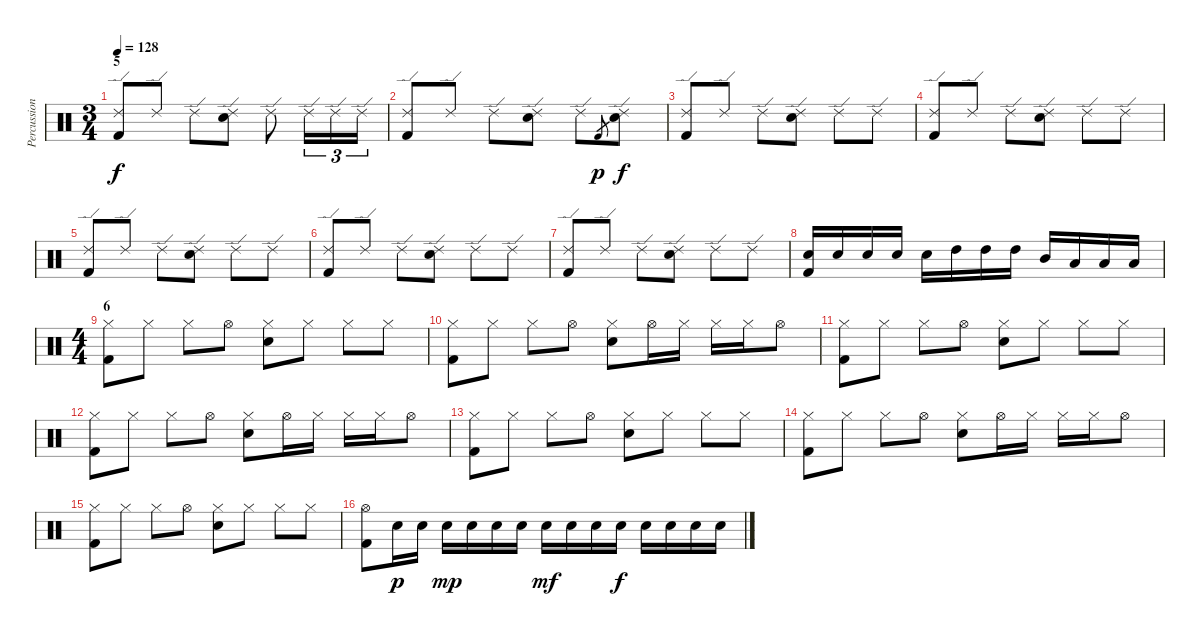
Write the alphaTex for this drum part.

\track ("Percussion" "Percussion") {instrument percussion}
\staff {score}
\articulation defaults
\ts (3 4)
\section ("" "5")
\tempo 128
\clef neutral
\ks c
("Ride (edge) 2" "Kick (hit) 2").8{dy f} "Ride (edge) 2".8 "Ride (edge) 2".8 ("Ride (edge) 2" "Electric Snare (hit)").8 "Ride (edge) 2".8 "Ride (edge) 2".16{tu (3 2)} "Ride (edge) 2".16{tu (3 2)} "Ride (edge) 2".16{tu (3 2)} |
("Ride (edge) 2" "Kick (hit) 2").8 "Ride (edge) 2".8 "Ride (edge) 2".8 ("Ride (edge) 2" "Electric Snare (hit)").8 "Ride (edge) 2".8 "Kick (hit) 2".8{gr dy p} ("Ride (edge) 2" "Electric Snare (hit)").8{dy f} |
("Ride (edge) 2" "Kick (hit) 2").8 "Ride (edge) 2".8 "Ride (edge) 2".8 ("Ride (edge) 2" "Electric Snare (hit)").8 "Ride (edge) 2".8 "Ride (edge) 2".8 |
("Ride (edge) 2" "Kick (hit) 2").8 "Ride (edge) 2".8 "Ride (edge) 2".8 ("Ride (edge) 2" "Electric Snare (hit)").8 "Ride (edge) 2".8 "Ride (edge) 2".8 |
("Ride (edge) 2" "Kick (hit) 2").8 "Ride (edge) 2".8 "Ride (edge) 2".8 ("Ride (edge) 2" "Electric Snare (hit)").8 "Ride (edge) 2".8 "Ride (edge) 2".8 |
("Ride (edge) 2" "Kick (hit) 2").8 "Ride (edge) 2".8 "Ride (edge) 2".8 ("Ride (edge) 2" "Electric Snare (hit)").8 "Ride (edge) 2".8 "Ride (edge) 2".8 |
("Ride (edge) 2" "Kick (hit) 2").8 "Ride (edge) 2".8 "Ride (edge) 2".8 ("Ride (edge) 2" "Electric Snare (hit)").8 "Ride (edge) 2".8 "Ride (edge) 2".8 |
("Electric Snare (hit)" "Kick (hit) 2").16 "Electric Snare (hit)".16 "Electric Snare (hit)".16 "Electric Snare (hit)".16 "Electric Snare (hit)".16 "High Tom (hit)".16 "High Tom (hit)".16 "High Tom (hit)".16 "Mid Tom (hit)".16 "Low Tom (hit)".16 "Low Tom (hit)".16 "Low Tom (hit)".16 |
\ts (4 4)
\section ("" "6")
("Hi-Hat (closed)" "Kick (hit) 2").8 "Hi-Hat (closed)".8 "Hi-Hat (closed)".8 "Hi-Hat (open)".8 ("Hi-Hat (closed)" "Electric Snare (hit)").8 "Hi-Hat (closed)".8 "Hi-Hat (closed)".8 "Hi-Hat (closed)".8 |
("Hi-Hat (closed)" "Kick (hit) 2").8 "Hi-Hat (closed)".8 "Hi-Hat (closed)".8 "Hi-Hat (open)".8 ("Hi-Hat (closed)" "Electric Snare (hit)").8 "Hi-Hat (open)".16 "Hi-Hat (closed)".16 "Hi-Hat (closed)".16 "Hi-Hat (closed)".16 "Hi-Hat (open)".8 |
("Hi-Hat (closed)" "Kick (hit) 2").8 "Hi-Hat (closed)".8 "Hi-Hat (closed)".8 "Hi-Hat (open)".8 ("Hi-Hat (closed)" "Electric Snare (hit)").8 "Hi-Hat (closed)".8 "Hi-Hat (closed)".8 "Hi-Hat (closed)".8 |
("Hi-Hat (closed)" "Kick (hit) 2").8 "Hi-Hat (closed)".8 "Hi-Hat (closed)".8 "Hi-Hat (open)".8 ("Hi-Hat (closed)" "Electric Snare (hit)").8 "Hi-Hat (open)".16 "Hi-Hat (closed)".16 "Hi-Hat (closed)".16 "Hi-Hat (closed)".16 "Hi-Hat (open)".8 |
("Hi-Hat (closed)" "Kick (hit) 2").8 "Hi-Hat (closed)".8 "Hi-Hat (closed)".8 "Hi-Hat (open)".8 ("Hi-Hat (closed)" "Electric Snare (hit)").8 "Hi-Hat (closed)".8 "Hi-Hat (closed)".8 "Hi-Hat (closed)".8 |
("Hi-Hat (closed)" "Kick (hit) 2").8 "Hi-Hat (closed)".8 "Hi-Hat (closed)".8 "Hi-Hat (open)".8 ("Hi-Hat (closed)" "Electric Snare (hit)").8 "Hi-Hat (open)".16 "Hi-Hat (closed)".16 "Hi-Hat (closed)".16 "Hi-Hat (closed)".16 "Hi-Hat (open)".8 |
("Hi-Hat (closed)" "Kick (hit) 2").8 "Hi-Hat (closed)".8 "Hi-Hat (closed)".8 "Hi-Hat (open)".8 ("Hi-Hat (closed)" "Electric Snare (hit)").8 "Hi-Hat (closed)".8 "Hi-Hat (closed)".8 "Hi-Hat (closed)".8 |
("Hi-Hat (open)" "Kick (hit) 2").8 "Electric Snare (hit)".16{dy p} "Electric Snare (hit)".16 "Electric Snare (hit)".16{dy mp} "Electric Snare (hit)".16 "Electric Snare (hit)".16 "Electric Snare (hit)".16 "Electric Snare (hit)".16{dy mf} "Electric Snare (hit)".16 "Electric Snare (hit)".16 "Electric Snare (hit)".16{dy f} "Electric Snare (hit)".16 "Electric Snare (hit)".16 "Electric Snare (hit)".16 "Electric Snare (hit)".16
